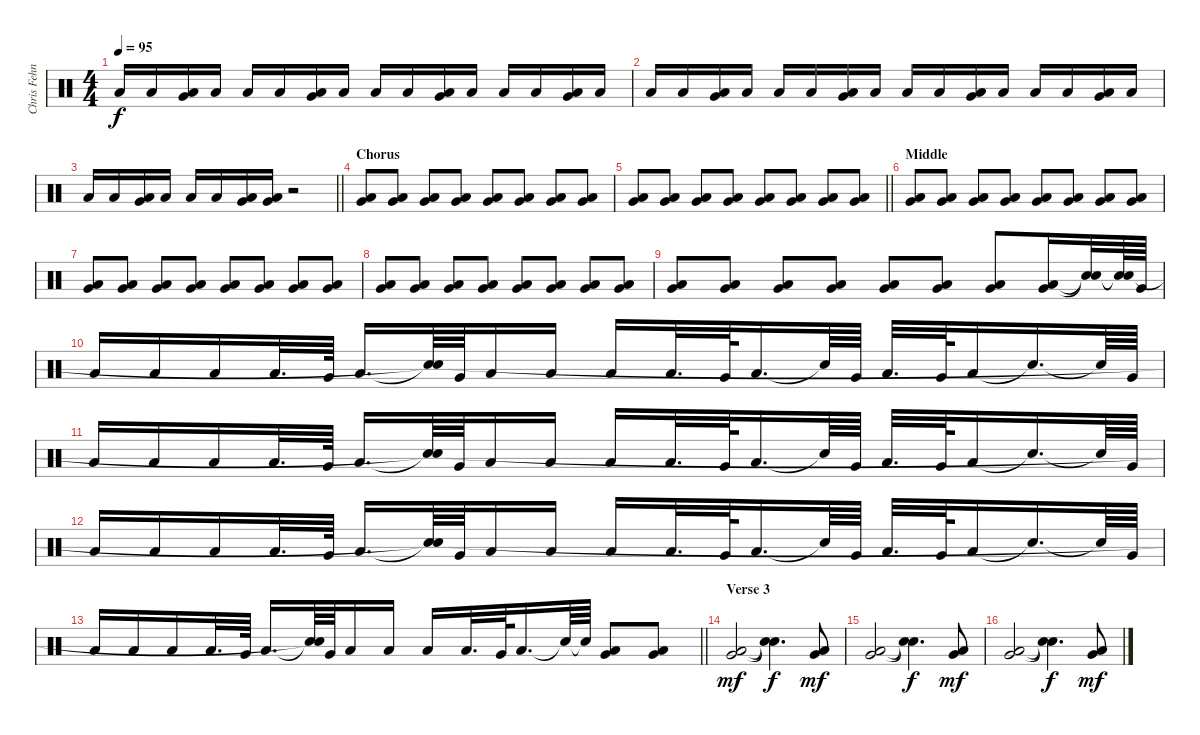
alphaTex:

\track ("Chris Fehn" "Chris Fehn") {instrument percussion}
\staff {score}
\articulation defaults
\ts (4 4)
\tempo 95
\clef neutral
\ks c "Low Floor Tom (hit)".16{dy f} "Low Floor Tom (hit)".16
("Very Low Tom (hit)" "Low Floor Tom (hit)").16 "Low Floor Tom (hit)".16 "Low Floor Tom (hit)".16 "Low Floor Tom (hit)".16 ("Very Low Tom (hit)" "Low Floor Tom (hit)").16 "Low Floor Tom (hit)".16 "Low Floor Tom (hit)".16 "Low Floor Tom (hit)".16 ("Very Low Tom (hit)" "Low Floor Tom (hit)").16 "Low Floor Tom (hit)".16 "Low Floor Tom (hit)".16 "Low Floor Tom (hit)".16 ("Very Low Tom (hit)" "Low Floor Tom (hit)").16 "Low Floor Tom (hit)".16 |
"Low Floor Tom (hit)".16 "Low Floor Tom (hit)".16 ("Very Low Tom (hit)" "Low Floor Tom (hit)").16 "Low Floor Tom (hit)".16 "Low Floor Tom (hit)".16 "Low Floor Tom (hit)".16 ("Very Low Tom (hit)" "Low Floor Tom (hit)").16 "Low Floor Tom (hit)".16 "Low Floor Tom (hit)".16 "Low Floor Tom (hit)".16 ("Very Low Tom (hit)" "Low Floor Tom (hit)").16 "Low Floor Tom (hit)".16 "Low Floor Tom (hit)".16 "Low Floor Tom (hit)".16 ("Very Low Tom (hit)" "Low Floor Tom (hit)").16 "Low Floor Tom (hit)".16 |
\barLineRight lightlight "Low Floor Tom (hit)".16 "Low Floor Tom (hit)".16
("Very Low Tom (hit)" "Low Floor Tom (hit)").16 "Low Floor Tom (hit)".16 "Low Floor Tom (hit)".16 "Low Floor Tom (hit)".16 ("Very Low Tom (hit)" "Low Floor Tom (hit)").16 ("Very Low Tom (hit)" "Low Floor Tom (hit)").16 r.2 |
\section ("" "Chorus")
("Very Low Tom (hit)" "Low Floor Tom (hit)").8 ("Very Low Tom (hit)" "Low Floor Tom (hit)").8 ("Very Low Tom (hit)" "Low Floor Tom (hit)").8 ("Very Low Tom (hit)" "Low Floor Tom (hit)").8 ("Very Low Tom (hit)" "Low Floor Tom (hit)").8 ("Very Low Tom (hit)" "Low Floor Tom (hit)").8 ("Very Low Tom (hit)" "Low Floor Tom (hit)").8 ("Very Low Tom (hit)" "Low Floor Tom (hit)").8 |
\barLineRight lightlight
("Very Low Tom (hit)" "Low Floor Tom (hit)").8 ("Very Low Tom (hit)" "Low Floor Tom (hit)").8 ("Very Low Tom (hit)" "Low Floor Tom (hit)").8 ("Very Low Tom (hit)" "Low Floor Tom (hit)").8 ("Very Low Tom (hit)" "Low Floor Tom (hit)").8 ("Very Low Tom (hit)" "Low Floor Tom (hit)").8 ("Very Low Tom (hit)" "Low Floor Tom (hit)").8 ("Very Low Tom (hit)" "Low Floor Tom (hit)").8 |
\section ("" "Middle")
("Very Low Tom (hit)" "Low Floor Tom (hit)").8 ("Very Low Tom (hit)" "Low Floor Tom (hit)").8 ("Very Low Tom (hit)" "Low Floor Tom (hit)").8 ("Very Low Tom (hit)" "Low Floor Tom (hit)").8 ("Very Low Tom (hit)" "Low Floor Tom (hit)").8 ("Very Low Tom (hit)" "Low Floor Tom (hit)").8 ("Very Low Tom (hit)" "Low Floor Tom (hit)").8 ("Very Low Tom (hit)" "Low Floor Tom (hit)").8 |
("Very Low Tom (hit)" "Low Floor Tom (hit)").8 ("Very Low Tom (hit)" "Low Floor Tom (hit)").8 ("Very Low Tom (hit)" "Low Floor Tom (hit)").8 ("Very Low Tom (hit)" "Low Floor Tom (hit)").8 ("Very Low Tom (hit)" "Low Floor Tom (hit)").8 ("Very Low Tom (hit)" "Low Floor Tom (hit)").8 ("Very Low Tom (hit)" "Low Floor Tom (hit)").8 ("Very Low Tom (hit)" "Low Floor Tom (hit)").8 |
("Very Low Tom (hit)" "Low Floor Tom (hit)").8 ("Very Low Tom (hit)" "Low Floor Tom (hit)").8 ("Very Low Tom (hit)" "Low Floor Tom (hit)").8 ("Very Low Tom (hit)" "Low Floor Tom (hit)").8 ("Very Low Tom (hit)" "Low Floor Tom (hit)").8 ("Very Low Tom (hit)" "Low Floor Tom (hit)").8 ("Very Low Tom (hit)" "Low Floor Tom (hit)").8 ("Very Low Tom (hit)" "Low Floor Tom (hit)").8 |
("Very Low Tom (hit)" "Low Floor Tom (hit)").8 ("Very Low Tom (hit)" "Low Floor Tom (hit)").8 ("Very Low Tom (hit)" "Low Floor Tom (hit)").8 ("Very Low Tom (hit)" "Low Floor Tom (hit)").8 ("Very Low Tom (hit)" "Low Floor Tom (hit)").8 ("Very Low Tom (hit)" "Low Floor Tom (hit)").8 ("Very Low Tom (hit)" "Low Floor Tom (hit)").8 ("Very Low Tom (hit)" "Low Floor Tom (hit)").16 ("Snare (hit)"{t} "Snare (hit)"{t}).32 ("Snare (hit)"{t} "Snare (hit)"{t}).64 "Very Low Tom (hit)".64 |
"Low Floor Tom (hit)".16 "Low Floor Tom (hit)".16 "Low Floor Tom (hit)".16 "Low Floor Tom (hit)".32{d} "Very Low Tom (hit)".64 "Low Floor Tom (hit)".16{d} ("Snare (hit)"{t} "Snare (hit)"{t}).64 "Very Low Tom (hit)".64 "Low Floor Tom (hit)".16 "Low Floor Tom (hit)".16 "Low Floor Tom (hit)".16 "Low Floor Tom (hit)".32{d} "Very Low Tom (hit)".64 "Low Floor Tom (hit)".16{d} "Snare (hit)"{t}.64 "Very Low Tom (hit)".64 "Low Floor Tom (hit)".32{d} "Very Low Tom (hit)".64 "Low Floor Tom (hit)".16 "Snare (hit)"{t}.16{d} "Snare (hit)"{t}.64 "Very Low Tom (hit)".64 |
"Low Floor Tom (hit)".16 "Low Floor Tom (hit)".16 "Low Floor Tom (hit)".16 "Low Floor Tom (hit)".32{d} "Very Low Tom (hit)".64 "Low Floor Tom (hit)".16{d} ("Snare (hit)"{t} "Snare (hit)"{t}).64 "Very Low Tom (hit)".64 "Low Floor Tom (hit)".16 "Low Floor Tom (hit)".16 "Low Floor Tom (hit)".16 "Low Floor Tom (hit)".32{d} "Very Low Tom (hit)".64 "Low Floor Tom (hit)".16{d} "Snare (hit)"{t}.64 "Very Low Tom (hit)".64 "Low Floor Tom (hit)".32{d} "Very Low Tom (hit)".64 "Low Floor Tom (hit)".16 "Snare (hit)"{t}.16{d} "Snare (hit)"{t}.64 "Very Low Tom (hit)".64 |
"Low Floor Tom (hit)".16 "Low Floor Tom (hit)".16 "Low Floor Tom (hit)".16 "Low Floor Tom (hit)".32{d} "Very Low Tom (hit)".64 "Low Floor Tom (hit)".16{d} ("Snare (hit)"{t} "Snare (hit)"{t}).64 "Very Low Tom (hit)".64 "Low Floor Tom (hit)".16 "Low Floor Tom (hit)".16 "Low Floor Tom (hit)".16 "Low Floor Tom (hit)".32{d} "Very Low Tom (hit)".64 "Low Floor Tom (hit)".16{d} "Snare (hit)"{t}.64 "Very Low Tom (hit)".64 "Low Floor Tom (hit)".32{d} "Very Low Tom (hit)".64 "Low Floor Tom (hit)".16 "Snare (hit)"{t}.16{d} "Snare (hit)"{t}.64 "Very Low Tom (hit)".64 |
\barLineRight lightlight "Low Floor Tom (hit)".16 "Low Floor Tom (hit)".16 "Low Floor Tom (hit)".16 "Low Floor Tom (hit)".32{d} "Very Low Tom (hit)".64 "Low Floor Tom (hit)".16{d}
("Snare (hit)"{t} "Snare (hit)"{t}).64 "Very Low Tom (hit)".64 "Low Floor Tom (hit)".16 "Low Floor Tom (hit)".16 "Low Floor Tom (hit)".16 "Low Floor Tom (hit)".32{d} "Very Low Tom (hit)".64 "Low Floor Tom (hit)".16{d} "Snare (hit)"{t}.64 "Snare (hit)"{t}.64 ("Very Low Tom (hit)" "Low Floor Tom (hit)").8 ("Very Low Tom (hit)" "Low Floor Tom (hit)").8 |
\section ("" "Verse 3")
("Very Low Tom (hit)" "Low Floor Tom (hit)").2{dy mf} ("Snare (hit)"{t} "Snare (hit)"{t}).4{d dy f} ("Very Low Tom (hit)" "Low Floor Tom (hit)").8{dy mf} |
("Very Low Tom (hit)" "Low Floor Tom (hit)").2 ("Snare (hit)"{t} "Snare (hit)"{t}).4{d dy f} ("Very Low Tom (hit)" "Low Floor Tom (hit)").8{dy mf} |
("Very Low Tom (hit)" "Low Floor Tom (hit)").2 ("Snare (hit)"{t} "Snare (hit)"{t}).4{d dy f} ("Very Low Tom (hit)" "Low Floor Tom (hit)").8{dy mf}
